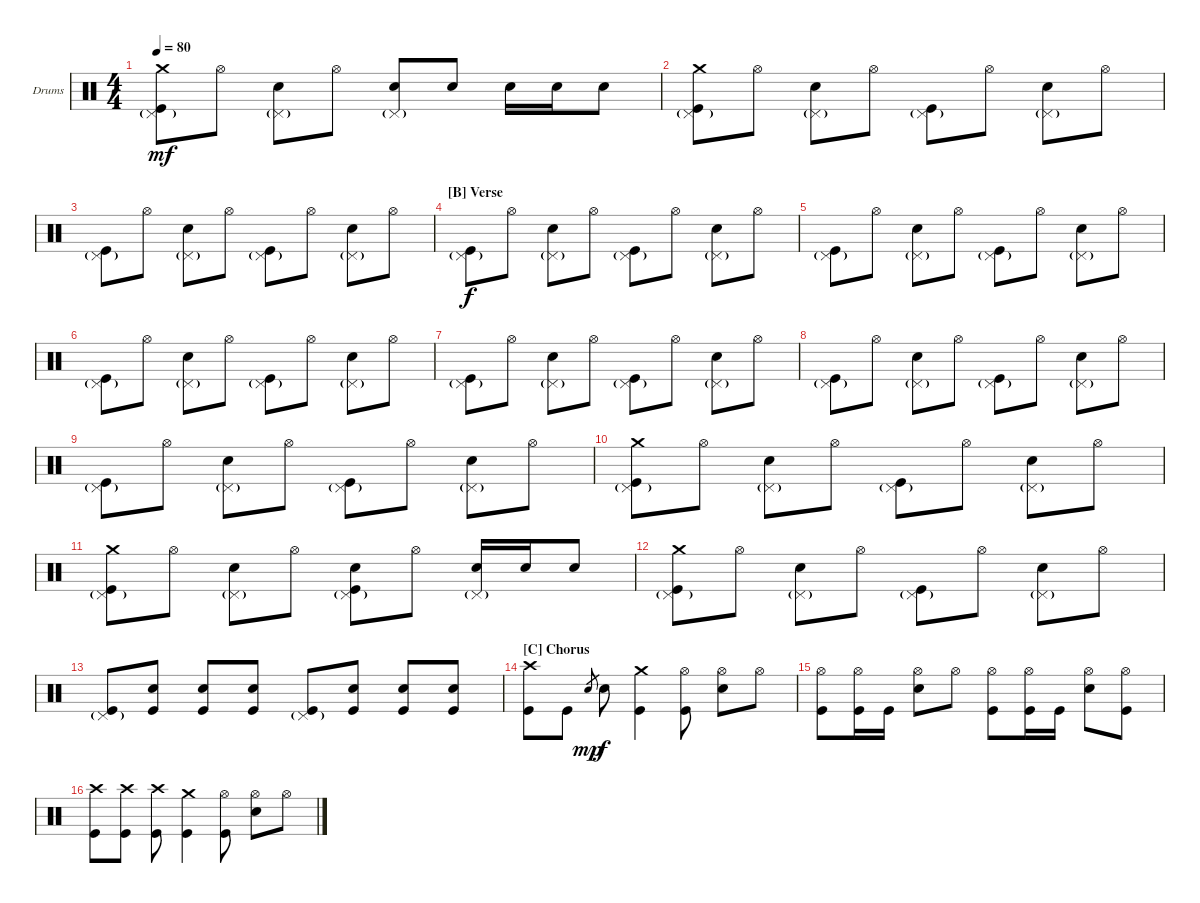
\defaultSystemsLayout 4
\bracketExtendMode groupsimilarinstruments
\firstSystemTrackNameOrientation horizontal
\otherSystemsTrackNameOrientation horizontal
\track ("Drumkit" "Drums") {instrument percussion}
\staff {score}
\articulation defaults
\ts (4 4)
\tempo 80
\clef neutral
\scale
1.02648
\ks c
("Pedal Hi-Hat (hit)"{g} "Crash medium (hit)" "Kick (hit)").8{dy mf} "Hi-Hat (open)".8 ("Pedal Hi-Hat (hit)"{g} "Snare (hit) 2").8 "Hi-Hat (open)".8 ("Pedal Hi-Hat (hit)"{g} "Snare (hit) 2").8 "Snare (hit) 2".8 "Snare (hit) 2".16 "Snare (hit) 2".16 "Snare (hit) 2".8 |
\scale
0.973518 ("Pedal Hi-Hat (hit)"{g} "Crash medium (hit)" "Kick (hit)").8 "Hi-Hat (open)".8 ("Pedal Hi-Hat (hit)"{g} "Snare (hit) 2").8 "Hi-Hat (open)".8 ("Pedal Hi-Hat (hit)"{g} "Kick (hit)").8 "Hi-Hat (open)".8 ("Pedal Hi-Hat (hit)"{g} "Snare (hit) 2").8 "Hi-Hat (open)".8 |
\scale
1.02648 ("Pedal Hi-Hat (hit)"{g} "Kick (hit)").8 "Hi-Hat (open)".8 ("Pedal Hi-Hat (hit)"{g} "Snare (hit) 2").8 "Hi-Hat (open)".8 ("Pedal Hi-Hat (hit)"{g} "Kick (hit)").8 "Hi-Hat (open)".8 ("Pedal Hi-Hat (hit)"{g} "Snare (hit) 2").8 "Hi-Hat (open)".8 |
\section ("B" "Verse")
\scale
0.973518 ("Pedal Hi-Hat (hit)"{g} "Kick (hit)").8{dy f} "Hi-Hat (open)".8 ("Pedal Hi-Hat (hit)"{g} "Snare (hit) 2").8 "Hi-Hat (open)".8 ("Pedal Hi-Hat (hit)"{g} "Kick (hit)").8 "Hi-Hat (open)".8 ("Pedal Hi-Hat (hit)"{g} "Snare (hit) 2").8 "Hi-Hat (open)".8 |
\scale
1.02648 ("Pedal Hi-Hat (hit)"{g} "Kick (hit)").8 "Hi-Hat (open)".8 ("Pedal Hi-Hat (hit)"{g} "Snare (hit) 2").8 "Hi-Hat (open)".8 ("Pedal Hi-Hat (hit)"{g} "Kick (hit)").8 "Hi-Hat (open)".8 ("Pedal Hi-Hat (hit)"{g} "Snare (hit) 2").8 "Hi-Hat (open)".8 |
\scale
0.973518 ("Pedal Hi-Hat (hit)"{g} "Kick (hit)").8 "Hi-Hat (open)".8 ("Pedal Hi-Hat (hit)"{g} "Snare (hit) 2").8 "Hi-Hat (open)".8 ("Pedal Hi-Hat (hit)"{g} "Kick (hit)").8 "Hi-Hat (open)".8 ("Pedal Hi-Hat (hit)"{g} "Snare (hit) 2").8 "Hi-Hat (open)".8 |
\scale
1.02648 ("Pedal Hi-Hat (hit)"{g} "Kick (hit)").8 "Hi-Hat (open)".8 ("Pedal Hi-Hat (hit)"{g} "Snare (hit) 2").8 "Hi-Hat (open)".8 ("Pedal Hi-Hat (hit)"{g} "Kick (hit)").8 "Hi-Hat (open)".8 ("Pedal Hi-Hat (hit)"{g} "Snare (hit) 2").8 "Hi-Hat (open)".8 |
\scale
0.973518 ("Pedal Hi-Hat (hit)"{g} "Kick (hit)").8 "Hi-Hat (open)".8 ("Pedal Hi-Hat (hit)"{g} "Snare (hit) 2").8 "Hi-Hat (open)".8 ("Pedal Hi-Hat (hit)"{g} "Kick (hit)").8 "Hi-Hat (open)".8 ("Pedal Hi-Hat (hit)"{g} "Snare (hit) 2").8 "Hi-Hat (open)".8 |
\scale
1.02648 ("Pedal Hi-Hat (hit)"{g} "Kick (hit)").8 "Hi-Hat (open)".8 ("Pedal Hi-Hat (hit)"{g} "Snare (hit) 2").8 "Hi-Hat (open)".8 ("Pedal Hi-Hat (hit)"{g} "Kick (hit)").8 "Hi-Hat (open)".8 ("Pedal Hi-Hat (hit)"{g} "Snare (hit) 2").8 "Hi-Hat (open)".8 |
\scale
0.973518 ("Pedal Hi-Hat (hit)"{g} "Crash medium (hit)" "Kick (hit)").8 "Hi-Hat (open)".8 ("Pedal Hi-Hat (hit)"{g} "Snare (hit) 2").8 "Hi-Hat (open)".8 ("Pedal Hi-Hat (hit)"{g} "Kick (hit)").8 "Hi-Hat (open)".8 ("Pedal Hi-Hat (hit)"{g} "Snare (hit) 2").8 "Hi-Hat (open)".8 |
\scale
1.02648 ("Pedal Hi-Hat (hit)"{g} "Crash medium (hit)" "Kick (hit)").8 "Hi-Hat (open)".8 ("Pedal Hi-Hat (hit)"{g} "Snare (hit) 2").8 "Hi-Hat (open)".8 ("Pedal Hi-Hat (hit)"{g} "Snare (hit) 2" "Kick (hit)").8 "Hi-Hat (open)".8 ("Pedal Hi-Hat (hit)"{g} "Snare (hit) 2").16 "Snare (hit) 2".16 "Snare (hit) 2".8 |
\scale
0.973518 ("Pedal Hi-Hat (hit)"{g} "Crash medium (hit)" "Kick (hit)").8 "Hi-Hat (open)".8 ("Pedal Hi-Hat (hit)"{g} "Snare (hit) 2").8 "Hi-Hat (open)".8 ("Pedal Hi-Hat (hit)"{g} "Kick (hit)").8 "Hi-Hat (open)".8 ("Pedal Hi-Hat (hit)"{g} "Snare (hit) 2").8 "Hi-Hat (open)".8 |
\scale
1.02648 ("Pedal Hi-Hat (hit)"{g} "Kick (hit)").8 ("Snare (hit) 2" "Kick (hit)").8 ("Snare (hit) 2" "Kick (hit)").8 ("Snare (hit) 2" "Kick (hit)").8 ("Pedal Hi-Hat (hit)"{g} "Kick (hit)").8 ("Snare (hit) 2" "Kick (hit)").8 ("Snare (hit) 2" "Kick (hit)").8 ("Snare (hit) 2" "Kick (hit)").8 |
\section ("C" "Chorus")
\scale
0.973518 ("Crash high (hit)" "Kick (hit)").8 "Kick (hit)".8 "Snare (hit) 2".8{gr dy mp} "Snare (hit) 2".8{dy f} ("Crash medium (hit)" "Kick (hit)").4 ("Hi-Hat (open)" "Kick (hit)").8 ("Hi-Hat (open)" "Snare (hit) 2").8 "Hi-Hat (open)".8 |
\scale
1.02648 ("Hi-Hat (open)" "Kick (hit)").8 ("Hi-Hat (open)" "Kick (hit)").16 "Kick (hit)".16 ("Hi-Hat (open)" "Snare (hit) 2").8 "Hi-Hat (open)".8 ("Hi-Hat (open)" "Kick (hit)").8 ("Hi-Hat (open)" "Kick (hit)").16 "Kick (hit)".16 ("Hi-Hat (open)" "Snare (hit) 2").8 ("Hi-Hat (open)" "Kick (hit)").8 |
\scale
0.973518 ("Crash high (hit)" "Kick (hit)").8 ("Crash high (hit)" "Kick (hit)").8 ("Crash high (hit)" "Kick (hit)").8 ("Crash medium (hit)" "Kick (hit)").4 ("Hi-Hat (open)" "Kick (hit)").8 ("Hi-Hat (open)" "Snare (hit) 2").8 "Hi-Hat (open)".8
